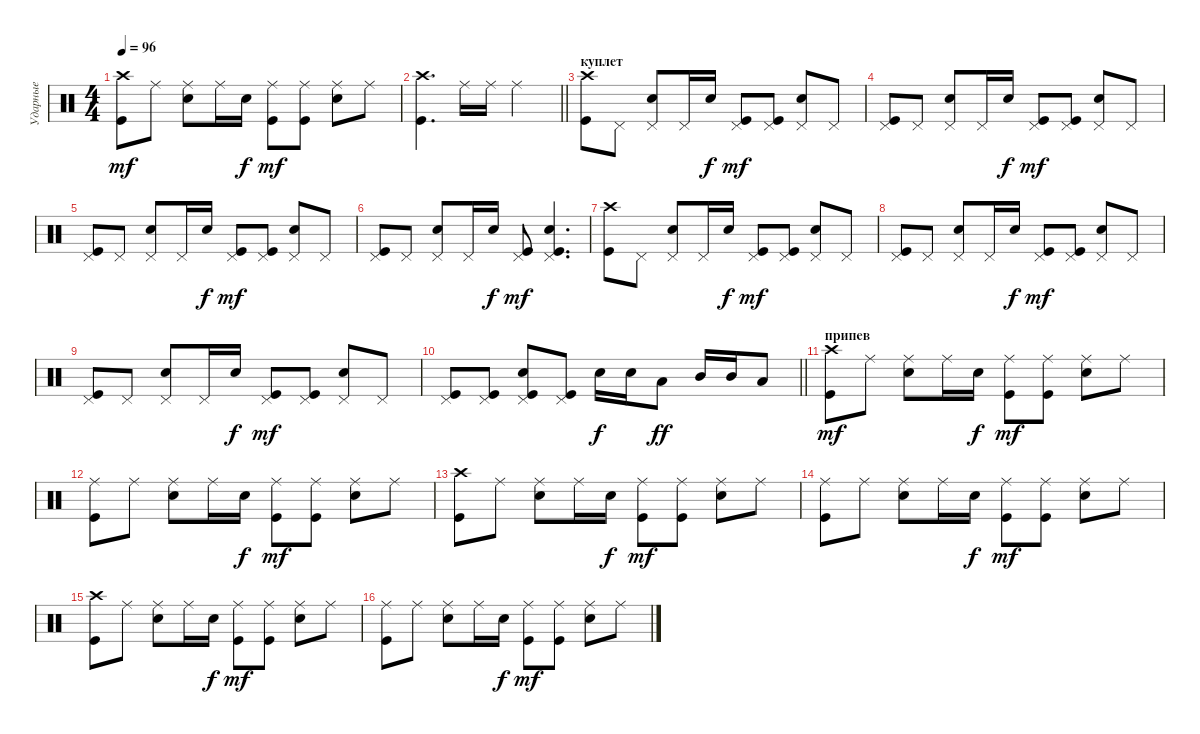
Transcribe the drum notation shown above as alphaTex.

\track ("Ударные" "Ударные") {instrument percussion}
\staff {score}
\articulation defaults
\ts (4 4)
\tempo 96
\clef neutral
\ks c
("Kick (hit)" "Crash high (hit)").8{dy mf} "Ride (middle)".8 ("Electric Snare (hit)" "Ride (middle)").8 "Ride (middle)".16 "Electric Snare (hit)".16{dy f} ("Kick (hit)" "Ride (middle)").8{dy mf} ("Kick (hit)" "Ride (middle)").8 ("Electric Snare (hit)" "Ride (middle)").8 "Ride (middle)".8 |
\barLineRight lightlight
("Kick (hit)" "Crash high (hit)").4{d} "Ride (middle)".16 "Ride (middle)".16 "Ride (middle)".2 |
\section ("" "куплет")
("Kick (hit)" "Crash high (hit)").8 "Pedal Hi-Hat (hit)".8 ("Electric Snare (hit)" "Pedal Hi-Hat (hit)").8 "Pedal Hi-Hat (hit)".16 "Electric Snare (hit)".16{dy f} ("Kick (hit)" "Pedal Hi-Hat (hit)").8{dy mf} ("Kick (hit)" "Pedal Hi-Hat (hit)").8 ("Electric Snare (hit)" "Pedal Hi-Hat (hit)").8 "Pedal Hi-Hat (hit)".8 |
("Kick (hit)" "Pedal Hi-Hat (hit)").8 "Pedal Hi-Hat (hit)".8 ("Electric Snare (hit)" "Pedal Hi-Hat (hit)").8 "Pedal Hi-Hat (hit)".16 "Electric Snare (hit)".16{dy f} ("Kick (hit)" "Pedal Hi-Hat (hit)").8{dy mf} ("Kick (hit)" "Pedal Hi-Hat (hit)").8 ("Electric Snare (hit)" "Pedal Hi-Hat (hit)").8 "Pedal Hi-Hat (hit)".8 |
("Kick (hit)" "Pedal Hi-Hat (hit)").8 "Pedal Hi-Hat (hit)".8 ("Electric Snare (hit)" "Pedal Hi-Hat (hit)").8 "Pedal Hi-Hat (hit)".16 "Electric Snare (hit)".16{dy f} ("Kick (hit)" "Pedal Hi-Hat (hit)").8{dy mf} ("Kick (hit)" "Pedal Hi-Hat (hit)").8 ("Electric Snare (hit)" "Pedal Hi-Hat (hit)").8 "Pedal Hi-Hat (hit)".8 |
("Kick (hit)" "Pedal Hi-Hat (hit)").8 "Pedal Hi-Hat (hit)".8 ("Electric Snare (hit)" "Pedal Hi-Hat (hit)").8 "Pedal Hi-Hat (hit)".16 "Electric Snare (hit)".16{dy f} ("Kick (hit)" "Pedal Hi-Hat (hit)").8{dy mf} ("Kick (hit)" "Electric Snare (hit)" "Pedal Hi-Hat (hit)").4{d} |
("Kick (hit)" "Crash high (hit)").8 "Pedal Hi-Hat (hit)".8 ("Electric Snare (hit)" "Pedal Hi-Hat (hit)").8 "Pedal Hi-Hat (hit)".16 "Electric Snare (hit)".16{dy f} ("Kick (hit)" "Pedal Hi-Hat (hit)").8{dy mf} ("Kick (hit)" "Pedal Hi-Hat (hit)").8 ("Electric Snare (hit)" "Pedal Hi-Hat (hit)").8 "Pedal Hi-Hat (hit)".8 |
("Kick (hit)" "Pedal Hi-Hat (hit)").8 "Pedal Hi-Hat (hit)".8 ("Electric Snare (hit)" "Pedal Hi-Hat (hit)").8 "Pedal Hi-Hat (hit)".16 "Electric Snare (hit)".16{dy f} ("Kick (hit)" "Pedal Hi-Hat (hit)").8{dy mf} ("Kick (hit)" "Pedal Hi-Hat (hit)").8 ("Electric Snare (hit)" "Pedal Hi-Hat (hit)").8 "Pedal Hi-Hat (hit)".8 |
("Kick (hit)" "Pedal Hi-Hat (hit)").8 "Pedal Hi-Hat (hit)".8 ("Electric Snare (hit)" "Pedal Hi-Hat (hit)").8 "Pedal Hi-Hat (hit)".16 "Electric Snare (hit)".16{dy f} ("Kick (hit)" "Pedal Hi-Hat (hit)").8{dy mf} ("Kick (hit)" "Pedal Hi-Hat (hit)").8 ("Electric Snare (hit)" "Pedal Hi-Hat (hit)").8 "Pedal Hi-Hat (hit)".8 |
\barLineRight lightlight
("Kick (hit)" "Pedal Hi-Hat (hit)").8 ("Kick (hit)" "Pedal Hi-Hat (hit)").8 ("Kick (hit)" "Electric Snare (hit)" "Pedal Hi-Hat (hit)").8 ("Kick (hit)" "Pedal Hi-Hat (hit)").8 "Electric Snare (hit)".16{dy f} "Electric Snare (hit)".16 "Low Floor Tom (hit)".8{dy ff} "Mid Tom (hit)".16 "Mid Tom (hit)".16 "Low Floor Tom (hit)".8 |
\section ("" "припев")
("Kick (hit)" "Crash high (hit)").8{dy mf} "Ride (middle)".8 ("Electric Snare (hit)" "Ride (middle)").8 "Ride (middle)".16 "Electric Snare (hit)".16{dy f} ("Kick (hit)" "Ride (middle)").8{dy mf} ("Kick (hit)" "Ride (middle)").8 ("Electric Snare (hit)" "Ride (middle)").8 "Ride (middle)".8 |
("Kick (hit)" "Ride (middle)").8 "Ride (middle)".8 ("Electric Snare (hit)" "Ride (middle)").8 "Ride (middle)".16 "Electric Snare (hit)".16{dy f} ("Kick (hit)" "Ride (middle)").8{dy mf} ("Kick (hit)" "Ride (middle)").8 ("Electric Snare (hit)" "Ride (middle)").8 "Ride (middle)".8 |
("Kick (hit)" "Crash high (hit)").8 "Ride (middle)".8 ("Electric Snare (hit)" "Ride (middle)").8 "Ride (middle)".16 "Electric Snare (hit)".16{dy f} ("Kick (hit)" "Ride (middle)").8{dy mf} ("Kick (hit)" "Ride (middle)").8 ("Electric Snare (hit)" "Ride (middle)").8 "Ride (middle)".8 |
("Kick (hit)" "Ride (middle)").8 "Ride (middle)".8 ("Electric Snare (hit)" "Ride (middle)").8 "Ride (middle)".16 "Electric Snare (hit)".16{dy f} ("Kick (hit)" "Ride (middle)").8{dy mf} ("Kick (hit)" "Ride (middle)").8 ("Electric Snare (hit)" "Ride (middle)").8 "Ride (middle)".8 |
("Kick (hit)" "Crash high (hit)").8 "Ride (middle)".8 ("Electric Snare (hit)" "Ride (middle)").8 "Ride (middle)".16 "Electric Snare (hit)".16{dy f} ("Kick (hit)" "Ride (middle)").8{dy mf} ("Kick (hit)" "Ride (middle)").8 ("Electric Snare (hit)" "Ride (middle)").8 "Ride (middle)".8 |
("Kick (hit)" "Ride (middle)").8 "Ride (middle)".8 ("Electric Snare (hit)" "Ride (middle)").8 "Ride (middle)".16 "Electric Snare (hit)".16{dy f} ("Kick (hit)" "Ride (middle)").8{dy mf} ("Kick (hit)" "Ride (middle)").8 ("Electric Snare (hit)" "Ride (middle)").8 "Ride (middle)".8
